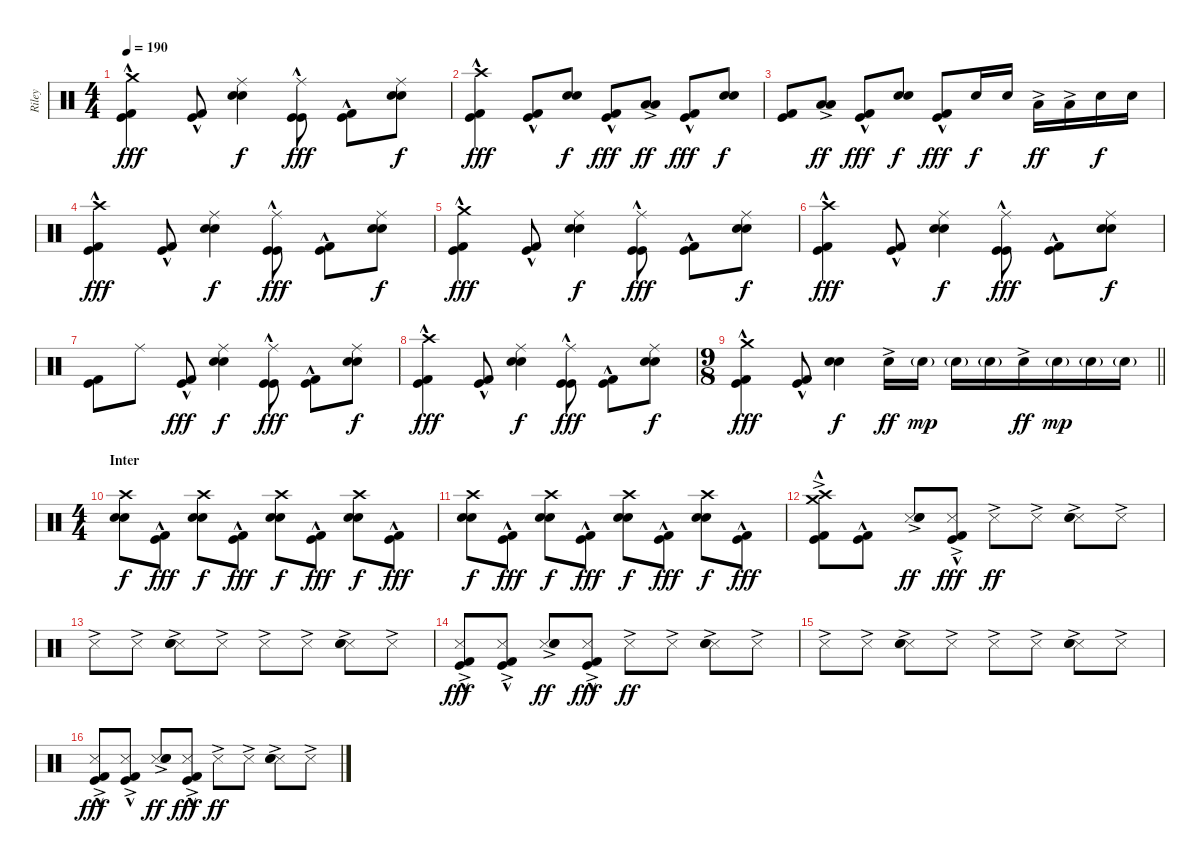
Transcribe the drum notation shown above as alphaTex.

\track ("Riley" "Riley") {instrument percussion}
\staff {score}
\articulation defaults
\ts (4 4)
\tempo 190
\clef neutral
\ks c
("Crash medium (hit)" "Kick (hit)"{hac} "Kick (hit) 2"{hac}).4{dy fff} ("Kick (hit)"{hac} "Kick (hit) 2"{hac}).8 ("Ride (middle)" "Electric Snare (hit)" "Snare (hit) 2").4{dy f} ("Ride (middle)" "Kick (hit)"{hac} "Kick (hit)"{hac}).8{dy fff} ("Kick (hit)"{hac} "Kick (hit) 2"{hac}).8 ("Ride (middle)" "Electric Snare (hit)" "Snare (hit) 2").8{dy f} |
("Crash high (hit)" "Kick (hit)"{hac} "Kick (hit) 2"{hac}).4{dy fff} ("Kick (hit)"{hac} "Kick (hit) 2"{hac}).8 ("Electric Snare (hit)" "Snare (hit) 2").8{dy f} ("Kick (hit)"{hac} "Kick (hit) 2"{hac}).8{dy fff} ("Low Tom (hit)"{ac} "Low Floor Tom (hit)"{ac}).8{dy ff} ("Kick (hit)"{hac} "Kick (hit) 2"{hac}).8{dy fff} ("Electric Snare (hit)" "Snare (hit) 2").8{dy f} |
("Kick (hit)" "Kick (hit) 2").8 ("Low Tom (hit)"{ac} "Low Floor Tom (hit)"{ac}).8{dy ff} ("Kick (hit)"{hac} "Kick (hit) 2"{hac}).8{dy fff} ("Electric Snare (hit)" "Snare (hit) 2").8{dy f} ("Kick (hit)"{hac} "Kick (hit) 2"{hac}).8{dy fff} "Electric Snare (hit)".16{dy f} "Electric Snare (hit)".16 "Low Tom (hit)"{ac}.16{dy ff} "Low Tom (hit)"{ac}.16 "Electric Snare (hit)".16{dy f} "Electric Snare (hit)".16 |
("Crash high (hit)" "Kick (hit)"{hac} "Kick (hit) 2"{hac}).4{dy fff} ("Kick (hit)"{hac} "Kick (hit) 2"{hac}).8 ("Ride (middle)" "Electric Snare (hit)" "Snare (hit) 2").4{dy f} ("Ride (middle)" "Kick (hit)"{hac} "Kick (hit)"{hac}).8{dy fff} ("Kick (hit)"{hac} "Kick (hit) 2"{hac}).8 ("Ride (middle)" "Electric Snare (hit)" "Snare (hit) 2").8{dy f} |
("Crash medium (hit)" "Kick (hit)"{hac} "Kick (hit) 2"{hac}).4{dy fff} ("Kick (hit)"{hac} "Kick (hit) 2"{hac}).8 ("Ride (middle)" "Electric Snare (hit)" "Snare (hit) 2").4{dy f} ("Ride (middle)" "Kick (hit)"{hac} "Kick (hit)"{hac}).8{dy fff} ("Kick (hit)"{hac} "Kick (hit) 2"{hac}).8 ("Ride (middle)" "Electric Snare (hit)" "Snare (hit) 2").8{dy f} |
("Crash high (hit)" "Kick (hit)"{hac} "Kick (hit) 2"{hac}).4{dy fff} ("Kick (hit)"{hac} "Kick (hit) 2"{hac}).8 ("Ride (middle)" "Electric Snare (hit)" "Snare (hit) 2").4{dy f} ("Ride (middle)" "Kick (hit)"{hac} "Kick (hit)"{hac}).8{dy fff} ("Kick (hit)"{hac} "Kick (hit) 2"{hac}).8 ("Ride (middle)" "Electric Snare (hit)" "Snare (hit) 2").8{dy f} |
("Kick (hit)" "Kick (hit) 2").8 "Ride (middle)".8 ("Kick (hit)"{hac} "Kick (hit) 2"{hac}).8{dy fff} ("Ride (middle)" "Electric Snare (hit)" "Snare (hit) 2").4{dy f} ("Ride (middle)" "Kick (hit)"{hac} "Kick (hit)"{hac}).8{dy fff} ("Kick (hit)"{hac} "Kick (hit) 2"{hac}).8 ("Ride (middle)" "Electric Snare (hit)" "Snare (hit) 2").8{dy f} |
("Crash high (hit)" "Kick (hit)"{hac} "Kick (hit) 2"{hac}).4{dy fff} ("Kick (hit)"{hac} "Kick (hit) 2"{hac}).8 ("Ride (middle)" "Electric Snare (hit)" "Snare (hit) 2").4{dy f} ("Ride (middle)" "Kick (hit)"{hac} "Kick (hit)"{hac}).8{dy fff} ("Kick (hit)"{hac} "Kick (hit) 2"{hac}).8 ("Ride (middle)" "Electric Snare (hit)" "Snare (hit) 2").8{dy f} |
\ts (9 8)
\barLineRight lightlight
("Crash medium (hit)" "Kick (hit)"{hac} "Kick (hit) 2"{hac}).4{dy fff} ("Kick (hit)"{hac} "Kick (hit) 2"{hac}).8 ("Electric Snare (hit)" "Snare (hit) 2").4{dy f} "Electric Snare (hit)"{ac}.16{dy ff} "Electric Snare (hit)"{g}.16{dy mp} "Electric Snare (hit)"{g}.16 "Electric Snare (hit)"{g}.16 "Electric Snare (hit)"{ac}.16{dy ff} "Electric Snare (hit)"{g}.16{dy mp} "Electric Snare (hit)"{g}.16 "Electric Snare (hit)"{g}.16 |
\ts (4 4)
\section ("" "Inter")
("Crash high (hit)" "Electric Snare (hit)" "Snare (hit) 2").8{dy f} ("Kick (hit)"{hac} "Kick (hit) 2"{hac}).8{dy fff} ("Crash high (hit)" "Electric Snare (hit)" "Snare (hit) 2").8{dy f} ("Kick (hit)"{hac} "Kick (hit) 2"{hac}).8{dy fff} ("Crash high (hit)" "Electric Snare (hit)" "Snare (hit) 2").8{dy f} ("Kick (hit)"{hac} "Kick (hit) 2"{hac}).8{dy fff} ("Crash high (hit)" "Electric Snare (hit)" "Snare (hit) 2").8{dy f} ("Kick (hit)"{hac} "Kick (hit) 2"{hac}).8{dy fff} |
("Crash high (hit)" "Electric Snare (hit)" "Snare (hit) 2").8{dy f} ("Kick (hit)"{hac} "Kick (hit) 2"{hac}).8{dy fff} ("Crash high (hit)" "Electric Snare (hit)" "Snare (hit) 2").8{dy f} ("Kick (hit)"{hac} "Kick (hit) 2"{hac}).8{dy fff} ("Crash high (hit)" "Electric Snare (hit)" "Snare (hit) 2").8{dy f} ("Kick (hit)"{hac} "Kick (hit) 2"{hac}).8{dy fff} ("Crash high (hit)" "Electric Snare (hit)" "Snare (hit) 2").8{dy f} ("Kick (hit)"{hac} "Kick (hit) 2"{hac}).8{dy fff} |
("Crash medium (hit)" "Crash high (hit)"{ac} "Kick (hit)"{hac} "Kick (hit) 2"{hac}).8 ("Kick (hit)"{hac} "Kick (hit) 2"{hac}).8 ("Snare (side stick) 3"{ac} "Electric Snare (hit)" "Snare (hit) 2").8{dy ff} ("Snare (side stick) 3"{ac} "Kick (hit)"{hac} "Kick (hit) 2"{hac}).8{dy fff} "Snare (side stick) 3"{ac}.8{dy ff} "Snare (side stick) 3"{ac}.8 ("Snare (side stick) 3"{ac} "Electric Snare (hit)" "Snare (hit) 2").8 "Snare (side stick) 3"{ac}.8 |
"Snare (side stick) 3"{ac}.8 "Snare (side stick) 3"{ac}.8 ("Snare (side stick) 3"{ac} "Electric Snare (hit)" "Snare (hit) 2").8 "Snare (side stick) 3"{ac}.8 "Snare (side stick) 3"{ac}.8 "Snare (side stick) 3"{ac}.8 ("Snare (side stick) 3"{ac} "Electric Snare (hit)" "Snare (hit) 2").8 "Snare (side stick) 3"{ac}.8 |
("Snare (side stick) 3"{ac} "Kick (hit)"{hac} "Kick (hit) 2"{hac}).8{dy fff} ("Snare (side stick) 3"{ac} "Kick (hit)"{hac} "Kick (hit) 2"{hac}).8 ("Snare (side stick) 3"{ac} "Electric Snare (hit)" "Snare (hit) 2").8{dy ff} ("Snare (side stick) 3"{ac} "Kick (hit)"{hac} "Kick (hit) 2"{hac}).8{dy fff} "Snare (side stick) 3"{ac}.8{dy ff} "Snare (side stick) 3"{ac}.8 ("Snare (side stick) 3"{ac} "Electric Snare (hit)" "Snare (hit) 2").8 "Snare (side stick) 3"{ac}.8 |
"Snare (side stick) 3"{ac}.8 "Snare (side stick) 3"{ac}.8 ("Snare (side stick) 3"{ac} "Electric Snare (hit)" "Snare (hit) 2").8 "Snare (side stick) 3"{ac}.8 "Snare (side stick) 3"{ac}.8 "Snare (side stick) 3"{ac}.8 ("Snare (side stick) 3"{ac} "Electric Snare (hit)" "Snare (hit) 2").8 "Snare (side stick) 3"{ac}.8 |
("Snare (side stick) 3"{ac} "Kick (hit)"{hac} "Kick (hit) 2"{hac}).8{dy fff} ("Snare (side stick) 3"{ac} "Kick (hit)"{hac} "Kick (hit) 2"{hac}).8 ("Snare (side stick) 3"{ac} "Electric Snare (hit)" "Snare (hit) 2").8{dy ff} ("Snare (side stick) 3"{ac} "Kick (hit)"{hac} "Kick (hit) 2"{hac}).8{dy fff} "Snare (side stick) 3"{ac}.8{dy ff} "Snare (side stick) 3"{ac}.8 ("Snare (side stick) 3"{ac} "Electric Snare (hit)" "Snare (hit) 2").8 "Snare (side stick) 3"{ac}.8
